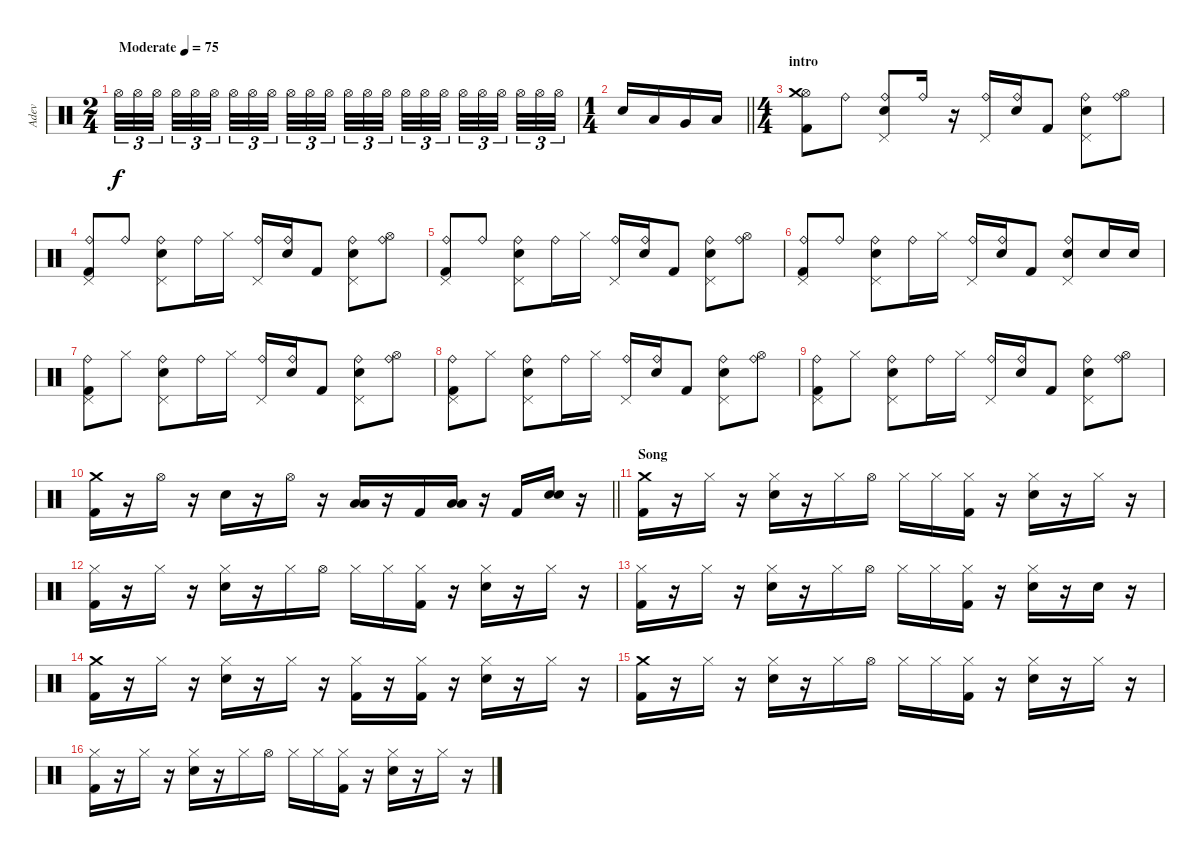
\track ("Adev" "Adev") {instrument percussion}
\staff {score}
\articulation defaults
\ts (2 4)
\tempo (75 "Moderate")
\clef neutral
\ks c "Hi-Hat (open)".32{tu (3 2) dy f} "Hi-Hat (open)".32{tu (3 2)} "Hi-Hat (open)".32{tu (3 2) beam splitsecondary} "Hi-Hat (open)".32{tu (3 2)} "Hi-Hat (open)".32{tu (3 2)} "Hi-Hat (open)".32{tu (3 2) beam splitsecondary} "Hi-Hat (open)".32{tu (3 2)} "Hi-Hat (open)".32{tu (3 2)} "Hi-Hat (open)".32{tu (3 2) beam splitsecondary} "Hi-Hat (open)".32{tu (3 2)} "Hi-Hat (open)".32{tu (3 2)} "Hi-Hat (open)".32{tu (3 2)} "Hi-Hat (open)".32{tu (3 2)} "Hi-Hat (open)".32{tu (3 2)} "Hi-Hat (open)".32{tu (3 2) beam splitsecondary} "Hi-Hat (open)".32{tu (3 2)} "Hi-Hat (open)".32{tu (3 2)} "Hi-Hat (open)".32{tu (3 2) beam splitsecondary} "Hi-Hat (open)".32{tu (3 2)} "Hi-Hat (open)".32{tu (3 2)} "Hi-Hat (open)".32{tu (3 2) beam splitsecondary} "Hi-Hat (open)".32{tu (3 2)} "Hi-Hat (open)".32{tu (3 2)} "Hi-Hat (open)".32{tu (3 2)}
|
\ts (1 4)
\barLineRight lightlight "Electric Snare (hit)".16{bu 120} "Low Tom (hit)".16 "Very Low Tom (hit)".16 "Low Floor Tom (hit)".16
|
\ts (4 4)
\section ("" "intro")
("Hi-Hat (open)" "Crash medium (hit)" "Kick (hit) 2").8 "Ride (bell)".8 ("Pedal Hi-Hat (hit)" "Ride (bell)" "Electric Snare (hit)").8 "Ride (bell)".16 r.16 ("Pedal Hi-Hat (hit)" "Ride (bell)").16 ("Ride (bell)" "Electric Snare (hit)").16 "Kick (hit) 2".8 ("Pedal Hi-Hat (hit)" "Ride (bell)" "Electric Snare (hit)").8 ("Hi-Hat (open)" "Ride (bell)").8 |
("Pedal Hi-Hat (hit)" "Ride (bell)" "Kick (hit) 2").8 "Ride (bell)".8 ("Pedal Hi-Hat (hit)" "Ride (bell)" "Electric Snare (hit)").8 "Ride (bell)".16 "Hi-Hat (closed)".16 ("Pedal Hi-Hat (hit)" "Ride (bell)").16 ("Ride (bell)" "Electric Snare (hit)").16 "Kick (hit) 2".8 ("Pedal Hi-Hat (hit)" "Ride (bell)" "Electric Snare (hit)").8 ("Ride (bell)" "Hi-Hat (open)").8 |
("Pedal Hi-Hat (hit)" "Ride (bell)" "Kick (hit) 2").8 "Ride (bell)".8 ("Pedal Hi-Hat (hit)" "Ride (bell)" "Electric Snare (hit)").8 "Ride (bell)".16 "Hi-Hat (closed)".16 ("Pedal Hi-Hat (hit)" "Ride (bell)").16 ("Ride (bell)" "Electric Snare (hit)").16 "Kick (hit) 2".8 ("Pedal Hi-Hat (hit)" "Ride (bell)" "Electric Snare (hit)").8 ("Ride (bell)" "Hi-Hat (open)").8 |
("Pedal Hi-Hat (hit)" "Ride (bell)" "Kick (hit) 2").8 "Ride (bell)".8 ("Pedal Hi-Hat (hit)" "Ride (bell)" "Electric Snare (hit)").8 "Ride (bell)".16 "Hi-Hat (closed)".16 ("Pedal Hi-Hat (hit)" "Ride (bell)").16 ("Ride (bell)" "Electric Snare (hit)").16 "Kick (hit) 2".8 ("Pedal Hi-Hat (hit)" "Ride (bell)" "Electric Snare (hit)").8 "Electric Snare (hit)".16 "Electric Snare (hit)".16 |
("Pedal Hi-Hat (hit)" "Ride (bell)" "Kick (hit) 2").8 "Hi-Hat (closed)".8 ("Pedal Hi-Hat (hit)" "Ride (bell)" "Electric Snare (hit)").8 "Ride (bell)".16 "Hi-Hat (closed)".16 ("Pedal Hi-Hat (hit)" "Ride (bell)").16 ("Ride (bell)" "Electric Snare (hit)").16 "Kick (hit) 2".8 ("Pedal Hi-Hat (hit)" "Ride (bell)" "Electric Snare (hit)").8 ("Ride (bell)" "Hi-Hat (open)").8 |
("Pedal Hi-Hat (hit)" "Ride (bell)" "Kick (hit) 2").8 "Hi-Hat (closed)".8 ("Pedal Hi-Hat (hit)" "Ride (bell)" "Electric Snare (hit)").8 "Ride (bell)".16 "Hi-Hat (closed)".16 ("Pedal Hi-Hat (hit)" "Ride (bell)").16 ("Ride (bell)" "Electric Snare (hit)").16 "Kick (hit) 2".8 ("Pedal Hi-Hat (hit)" "Ride (bell)" "Electric Snare (hit)").8 ("Ride (bell)" "Hi-Hat (open)").8 |
("Pedal Hi-Hat (hit)" "Ride (bell)" "Kick (hit) 2").8 "Hi-Hat (closed)".8 ("Pedal Hi-Hat (hit)" "Ride (bell)" "Electric Snare (hit)").8 "Ride (bell)".16 "Hi-Hat (closed)".16 ("Pedal Hi-Hat (hit)" "Ride (bell)").16 ("Ride (bell)" "Electric Snare (hit)").16 "Kick (hit) 2".8 ("Pedal Hi-Hat (hit)" "Ride (bell)" "Electric Snare (hit)").8 ("Ride (bell)" "Hi-Hat (open)").8 |
\barLineRight lightlight
("Crash medium (hit)" "Kick (hit) 2").16 r.16 "Hi-Hat (open)".16 r.16 "Electric Snare (hit)".16 r.16 "Hi-Hat (open)".16 r.16 ("Low Tom (hit)" "Low Tom (hit)").16{bu 120} r.16 "Kick (hit) 2".16 ("Low Floor Tom (hit)" "Low Floor Tom (hit)").16{bu 120} r.16 "Kick (hit) 2".16 ("Electric Snare (hit)" "Electric Snare (hit)").16{bu 120} r.16 |
\section ("" "Song")
("Crash medium (hit)" "Kick (hit) 2").16 r.16 "Hi-Hat (closed)".16 r.16 ("Hi-Hat (closed)" "Electric Snare (hit)").16 r.16 "Hi-Hat (closed)".16 "Hi-Hat (open)".16 "Hi-Hat (closed)".16 "Hi-Hat (closed)".16 ("Hi-Hat (closed)" "Kick (hit) 2").16 r.16 ("Hi-Hat (closed)" "Electric Snare (hit)").16 r.16 "Hi-Hat (closed)".16 r.16 |
("Hi-Hat (closed)" "Kick (hit) 2").16 r.16 "Hi-Hat (closed)".16 r.16 ("Hi-Hat (closed)" "Electric Snare (hit)").16 r.16 "Hi-Hat (closed)".16 "Hi-Hat (open)".16 "Hi-Hat (closed)".16 "Hi-Hat (closed)".16 ("Hi-Hat (closed)" "Kick (hit) 2").16 r.16 ("Hi-Hat (closed)" "Electric Snare (hit)").16 r.16 "Hi-Hat (closed)".16 r.16 |
("Hi-Hat (closed)" "Kick (hit) 2").16 r.16 "Hi-Hat (closed)".16 r.16 ("Hi-Hat (closed)" "Electric Snare (hit)").16 r.16 "Hi-Hat (closed)".16 "Hi-Hat (open)".16 "Hi-Hat (closed)".16 "Hi-Hat (closed)".16 ("Hi-Hat (closed)" "Kick (hit) 2").16 r.16 ("Hi-Hat (closed)" "Electric Snare (hit)").16 r.16 "Electric Snare (hit)".16 r.16 |
("Crash medium (hit)" "Kick (hit) 2").16 r.16 "Hi-Hat (closed)".16 r.16 ("Hi-Hat (closed)" "Electric Snare (hit)").16 r.16 "Hi-Hat (closed)".16 r.16 ("Hi-Hat (closed)" "Kick (hit) 2").16 r.16 ("Hi-Hat (closed)" "Kick (hit) 2").16 r.16 ("Hi-Hat (closed)" "Electric Snare (hit)").16 r.16 "Hi-Hat (closed)".16 r.16 |
("Crash medium (hit)" "Kick (hit) 2").16 r.16 "Hi-Hat (closed)".16 r.16 ("Hi-Hat (closed)" "Electric Snare (hit)").16 r.16 "Hi-Hat (closed)".16 "Hi-Hat (open)".16 "Hi-Hat (closed)".16 "Hi-Hat (closed)".16 ("Hi-Hat (closed)" "Kick (hit) 2").16 r.16 ("Hi-Hat (closed)" "Electric Snare (hit)").16 r.16 "Hi-Hat (closed)".16 r.16 |
("Hi-Hat (closed)" "Kick (hit) 2").16 r.16 "Hi-Hat (closed)".16 r.16 ("Hi-Hat (closed)" "Electric Snare (hit)").16 r.16 "Hi-Hat (closed)".16 "Hi-Hat (open)".16 "Hi-Hat (closed)".16 "Hi-Hat (closed)".16 ("Hi-Hat (closed)" "Kick (hit) 2").16 r.16 ("Hi-Hat (closed)" "Electric Snare (hit)").16 r.16 "Hi-Hat (closed)".16 r.16
